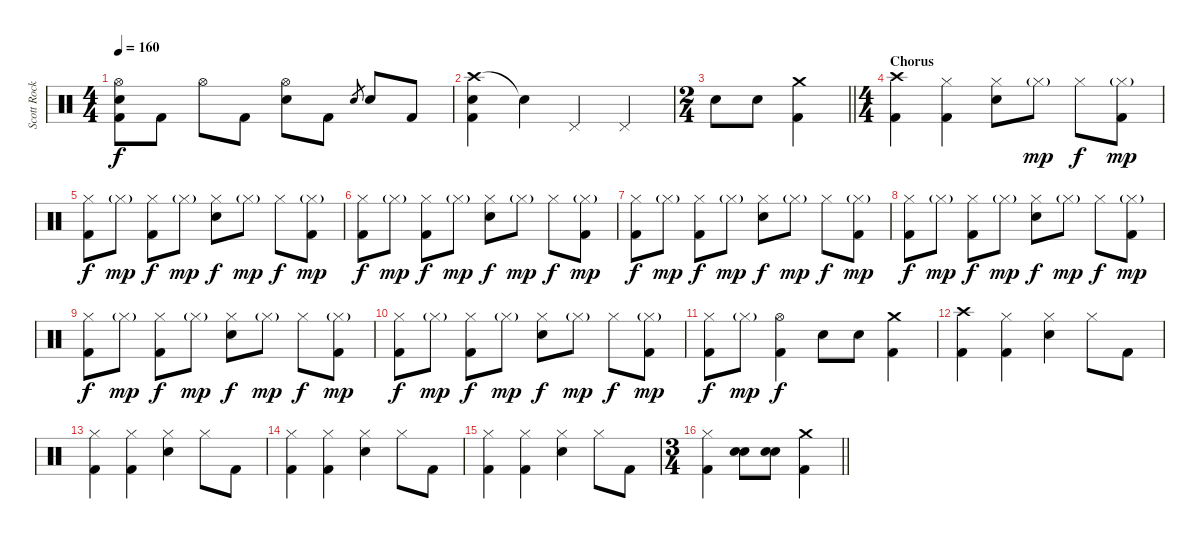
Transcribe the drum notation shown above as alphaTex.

\track ("Scott Rockenfield" "Scott Rock") {instrument percussion}
\staff {score}
\articulation defaults
\ts (4 4)
\tempo 160
\clef neutral
\ks c
("Hi-Hat (open)" "Electric Snare (hit)" "Kick (hit) 2").8{dy f} "Kick (hit) 2".8 "Hi-Hat (open)".8 "Kick (hit) 2".8 ("Hi-Hat (open)" "Electric Snare (hit)").8 "Kick (hit) 2".8 "Electric Snare (hit)".8{gr} "Electric Snare (hit)".8 "Kick (hit) 2".8 |
("Crash high (hit)" "Electric Snare (hit)" "Kick (hit) 2").4 "Snare (hit)"{t}.4 "Pedal Hi-Hat (hit)".4 "Pedal Hi-Hat (hit)".4 |
\ts (2 4)
\barLineRight lightlight "Electric Snare (hit)".8 "Electric Snare (hit)".8
("Crash medium (hit)" "Kick (hit) 2").4 |
\ts (4 4)
\section ("" "Chorus")
("Crash high (hit)" "Kick (hit) 2").4 ("Hi-Hat (closed)" "Kick (hit) 2").4 ("Hi-Hat (closed)" "Electric Snare (hit)").8 "Hi-Hat (closed)"{g}.8{dy mp} "Hi-Hat (closed)".8{dy f} ("Hi-Hat (closed)"{g} "Kick (hit) 2").8{dy mp} |
("Hi-Hat (closed)" "Kick (hit) 2").8{dy f} "Hi-Hat (closed)"{g}.8{dy mp} ("Hi-Hat (closed)" "Kick (hit) 2").8{dy f} "Hi-Hat (closed)"{g}.8{dy mp} ("Hi-Hat (closed)" "Electric Snare (hit)").8{dy f} "Hi-Hat (closed)"{g}.8{dy mp} "Hi-Hat (closed)".8{dy f} ("Hi-Hat (closed)"{g} "Kick (hit) 2").8{dy mp} |
("Hi-Hat (closed)" "Kick (hit) 2").8{dy f} "Hi-Hat (closed)"{g}.8{dy mp} ("Hi-Hat (closed)" "Kick (hit) 2").8{dy f} "Hi-Hat (closed)"{g}.8{dy mp} ("Hi-Hat (closed)" "Electric Snare (hit)").8{dy f} "Hi-Hat (closed)"{g}.8{dy mp} "Hi-Hat (closed)".8{dy f} ("Hi-Hat (closed)"{g} "Kick (hit) 2").8{dy mp} |
("Hi-Hat (closed)" "Kick (hit) 2").8{dy f} "Hi-Hat (closed)"{g}.8{dy mp} ("Hi-Hat (closed)" "Kick (hit) 2").8{dy f} "Hi-Hat (closed)"{g}.8{dy mp} ("Hi-Hat (closed)" "Electric Snare (hit)").8{dy f} "Hi-Hat (closed)"{g}.8{dy mp} "Hi-Hat (closed)".8{dy f} ("Hi-Hat (closed)"{g} "Kick (hit) 2").8{dy mp} |
("Hi-Hat (closed)" "Kick (hit) 2").8{dy f} "Hi-Hat (closed)"{g}.8{dy mp} ("Hi-Hat (closed)" "Kick (hit) 2").8{dy f} "Hi-Hat (closed)"{g}.8{dy mp} ("Hi-Hat (closed)" "Electric Snare (hit)").8{dy f} "Hi-Hat (closed)"{g}.8{dy mp} "Hi-Hat (closed)".8{dy f} ("Hi-Hat (closed)"{g} "Kick (hit) 2").8{dy mp} |
("Hi-Hat (closed)" "Kick (hit) 2").8{dy f} "Hi-Hat (closed)"{g}.8{dy mp} ("Hi-Hat (closed)" "Kick (hit) 2").8{dy f} "Hi-Hat (closed)"{g}.8{dy mp} ("Hi-Hat (closed)" "Electric Snare (hit)").8{dy f} "Hi-Hat (closed)"{g}.8{dy mp} "Hi-Hat (closed)".8{dy f} ("Hi-Hat (closed)"{g} "Kick (hit) 2").8{dy mp} |
("Hi-Hat (closed)" "Kick (hit) 2").8{dy f} "Hi-Hat (closed)"{g}.8{dy mp} ("Hi-Hat (closed)" "Kick (hit) 2").8{dy f} "Hi-Hat (closed)"{g}.8{dy mp} ("Hi-Hat (closed)" "Electric Snare (hit)").8{dy f} "Hi-Hat (closed)"{g}.8{dy mp} "Hi-Hat (closed)".8{dy f} ("Hi-Hat (closed)"{g} "Kick (hit) 2").8{dy mp} |
("Hi-Hat (closed)" "Kick (hit) 2").8{dy f} "Hi-Hat (closed)"{g}.8{dy mp} ("Hi-Hat (open)" "Kick (hit) 2").4{dy f} "Electric Snare (hit)".8 "Electric Snare (hit)".8 ("Crash medium (hit)" "Kick (hit) 2").4 |
("Crash high (hit)" "Kick (hit) 2").4 ("Hi-Hat (closed)" "Kick (hit) 2").4 ("Hi-Hat (closed)" "Electric Snare (hit)").4 "Hi-Hat (closed)".8 "Kick (hit) 2".8 |
("Hi-Hat (closed)" "Kick (hit) 2").4 ("Hi-Hat (closed)" "Kick (hit) 2").4 ("Hi-Hat (closed)" "Electric Snare (hit)").4 "Hi-Hat (closed)".8 "Kick (hit) 2".8 |
("Hi-Hat (closed)" "Kick (hit) 2").4 ("Hi-Hat (closed)" "Kick (hit) 2").4 ("Hi-Hat (closed)" "Electric Snare (hit)").4 "Hi-Hat (closed)".8 "Kick (hit) 2".8 |
("Hi-Hat (closed)" "Kick (hit) 2").4 ("Hi-Hat (closed)" "Kick (hit) 2").4 ("Hi-Hat (closed)" "Electric Snare (hit)").4 "Hi-Hat (closed)".8 "Kick (hit) 2".8 |
\ts (3 4)
\barLineRight lightlight
("Hi-Hat (closed)" "Kick (hit) 2").4 ("Electric Snare (hit)" "Electric Snare (hit)").8 ("Electric Snare (hit)" "Electric Snare (hit)").8 ("Crash medium (hit)" "Kick (hit) 2").4
